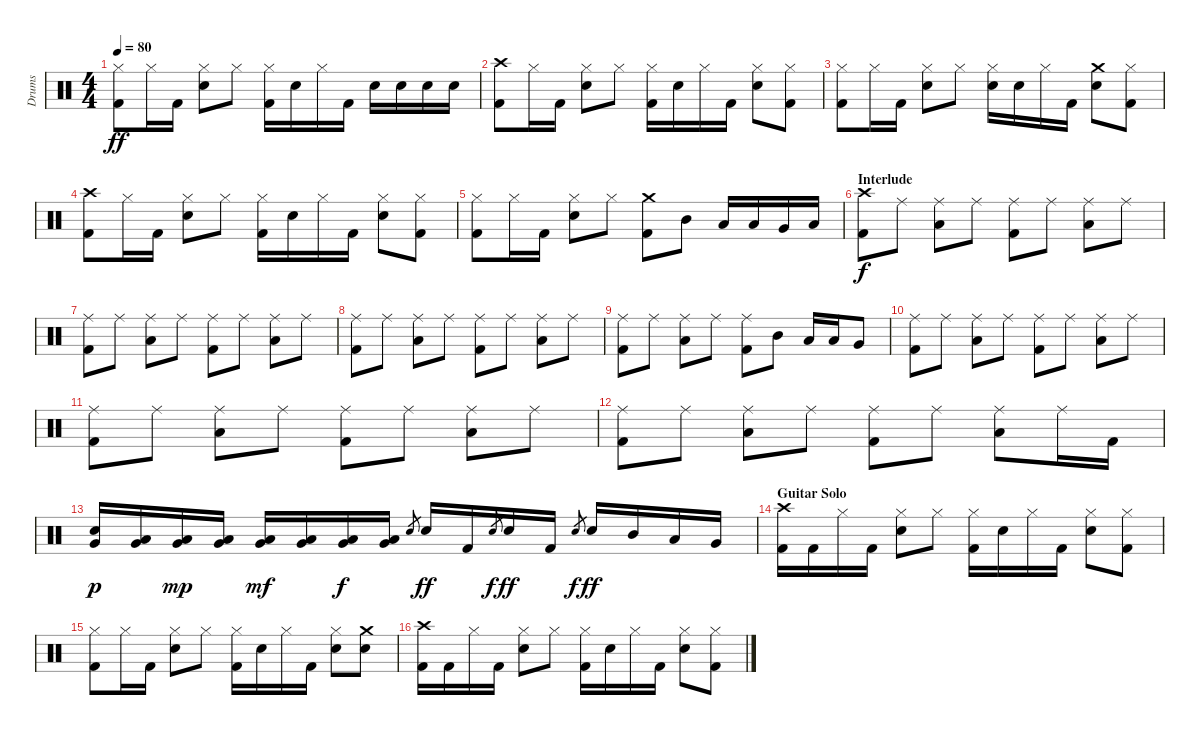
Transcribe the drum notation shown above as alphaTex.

\track ("Drums" "Drums") {instrument percussion}
\staff {score}
\articulation defaults
\ts (4 4)
\tempo 80
\clef neutral
\ks c
("Hi-Hat (closed)" "Kick (hit) 2").8{dy ff} "Hi-Hat (closed)".16 "Kick (hit) 2".16 ("Hi-Hat (closed)" "Snare (hit) 2").8 "Hi-Hat (closed)".8 ("Hi-Hat (closed)" "Kick (hit) 2").16 "Snare (hit) 2".16 "Hi-Hat (closed)".16 "Kick (hit) 2".16 "Snare (hit) 2".16 "Snare (hit) 2".16 "Snare (hit) 2".16 "Snare (hit) 2".16 |
("Crash high (hit)" "Kick (hit) 2").8 "Hi-Hat (closed)".16 "Kick (hit) 2".16 ("Hi-Hat (closed)" "Snare (hit) 2").8 "Hi-Hat (closed)".8 ("Hi-Hat (closed)" "Kick (hit) 2").16 "Snare (hit) 2".16 "Hi-Hat (closed)".16 "Kick (hit) 2".16 ("Hi-Hat (closed)" "Snare (hit) 2").8 ("Hi-Hat (closed)" "Kick (hit) 2").8 |
("Hi-Hat (closed)" "Kick (hit) 2").8 "Hi-Hat (closed)".16 "Kick (hit) 2".16 ("Hi-Hat (closed)" "Snare (hit) 2").8 "Hi-Hat (closed)".8 ("Hi-Hat (closed)" "Snare (hit) 2").16 "Snare (hit) 2".16 "Hi-Hat (closed)".16 "Kick (hit) 2".16 ("Crash medium (hit)" "Snare (hit) 2").8 ("Hi-Hat (closed)" "Kick (hit) 2").8 |
("Crash high (hit)" "Kick (hit) 2").8 "Hi-Hat (closed)".16 "Kick (hit) 2".16 ("Hi-Hat (closed)" "Snare (hit) 2").8 "Hi-Hat (closed)".8 ("Hi-Hat (closed)" "Kick (hit) 2").16 "Snare (hit) 2".16 "Hi-Hat (closed)".16 "Kick (hit) 2".16 ("Hi-Hat (closed)" "Snare (hit) 2").8 ("Hi-Hat (closed)" "Kick (hit) 2").8 |
("Hi-Hat (closed)" "Kick (hit) 2").8 "Hi-Hat (closed)".16 "Kick (hit) 2".16 ("Hi-Hat (closed)" "Snare (hit) 2").8 "Hi-Hat (closed)".8 ("Crash medium (hit)" "Kick (hit) 2").8 "Mid Tom (hit)".8 "Low Tom (hit)".16 "Low Tom (hit)".16 "Very Low Tom (hit)".16 "Low Floor Tom (hit)".16 |
\section ("" "Interlude")
("Crash high (hit)" "Kick (hit) 2").8{dy f} "Ride (middle)".8 ("Ride (middle)" "Low Tom (hit)").8 "Ride (middle)".8 ("Ride (middle)" "Kick (hit) 2").8 "Ride (middle)".8 ("Ride (middle)" "Low Tom (hit)").8 "Ride (middle)".8 |
("Ride (middle)" "Kick (hit) 2").8 "Ride (middle)".8 ("Ride (middle)" "Low Tom (hit)").8 "Ride (middle)".8 ("Ride (middle)" "Kick (hit) 2").8 "Ride (middle)".8 ("Ride (middle)" "Low Tom (hit)").8 "Ride (middle)".8 |
("Ride (middle)" "Kick (hit) 2").8 "Ride (middle)".8 ("Ride (middle)" "Low Tom (hit)").8 "Ride (middle)".8 ("Ride (middle)" "Kick (hit) 2").8 "Ride (middle)".8 ("Ride (middle)" "Low Tom (hit)").8 "Ride (middle)".8 |
("Ride (middle)" "Kick (hit) 2").8 "Ride (middle)".8 ("Ride (middle)" "Low Tom (hit)").8 "Ride (middle)".8 ("Ride (middle)" "Kick (hit) 2").8 "Mid Tom (hit)".8 "Low Tom (hit)".16 "Low Tom (hit)".16 "Very Low Tom (hit)".8 |
("Ride (middle)" "Kick (hit) 2").8 "Ride (middle)".8 ("Ride (middle)" "Low Tom (hit)").8 "Ride (middle)".8 ("Ride (middle)" "Kick (hit) 2").8 "Ride (middle)".8 ("Ride (middle)" "Low Tom (hit)").8 "Ride (middle)".8 |
("Ride (middle)" "Kick (hit) 2").8 "Ride (middle)".8 ("Ride (middle)" "Low Tom (hit)").8 "Ride (middle)".8 ("Ride (middle)" "Kick (hit) 2").8 "Ride (middle)".8 ("Ride (middle)" "Low Tom (hit)").8 "Ride (middle)".8 |
("Ride (middle)" "Kick (hit) 2").8 "Ride (middle)".8 ("Ride (middle)" "Low Tom (hit)").8 "Ride (middle)".8 ("Ride (middle)" "Kick (hit) 2").8 "Ride (middle)".8 ("Ride (middle)" "Low Tom (hit)").8 "Ride (middle)".16 "Kick (hit) 2".16 |
("Snare (hit) 2" "Very Low Tom (hit)").16{dy p} ("Low Tom (hit)" "Very Low Tom (hit)").16 ("Low Tom (hit)" "Very Low Tom (hit)").16{dy mp} ("Low Tom (hit)" "Very Low Tom (hit)").16 ("Low Tom (hit)" "Very Low Tom (hit)").16{dy mf} ("Low Tom (hit)" "Very Low Tom (hit)").16 ("Low Tom (hit)" "Very Low Tom (hit)").16{dy f} ("Low Tom (hit)" "Very Low Tom (hit)").16 "Snare (hit) 2".8{gr} "Snare (hit) 2".16{dy ff} "Kick (hit) 2".16 "Snare (hit) 2".8{gr dy f} "Snare (hit) 2".16{dy ff} "Kick (hit) 2".16 "Snare (hit) 2".8{gr dy f} "Snare (hit) 2".16{dy ff} "Mid Tom (hit)".16 "Low Tom (hit)".16 "Very Low Tom (hit)".16 |
\section ("" "Guitar Solo")
("Crash high (hit)" "Kick (hit) 2").16 "Kick (hit) 2".16 "Hi-Hat (closed)".16 "Kick (hit) 2".16 ("Hi-Hat (closed)" "Snare (hit) 2").8 "Hi-Hat (closed)".8 ("Hi-Hat (closed)" "Kick (hit) 2").16 "Snare (hit) 2".16 "Hi-Hat (closed)".16 "Kick (hit) 2".16 ("Hi-Hat (closed)" "Snare (hit) 2").8 ("Hi-Hat (closed)" "Kick (hit) 2").8 |
("Hi-Hat (closed)" "Kick (hit) 2").8 "Hi-Hat (closed)".16 "Kick (hit) 2".16 ("Hi-Hat (closed)" "Snare (hit) 2").8 "Hi-Hat (closed)".8 ("Hi-Hat (closed)" "Kick (hit) 2").16 "Snare (hit) 2".16 "Hi-Hat (closed)".16 "Kick (hit) 2".16 ("Hi-Hat (closed)" "Snare (hit) 2").8 ("Crash medium (hit)" "Snare (hit) 2").8 |
("Crash high (hit)" "Kick (hit) 2").16 "Kick (hit) 2".16 "Hi-Hat (closed)".16 "Kick (hit) 2".16 ("Hi-Hat (closed)" "Snare (hit) 2").8 "Hi-Hat (closed)".8 ("Hi-Hat (closed)" "Kick (hit) 2").16 "Snare (hit) 2".16 "Hi-Hat (closed)".16 "Kick (hit) 2".16 ("Hi-Hat (closed)" "Snare (hit) 2").8 ("Hi-Hat (closed)" "Kick (hit) 2").8
